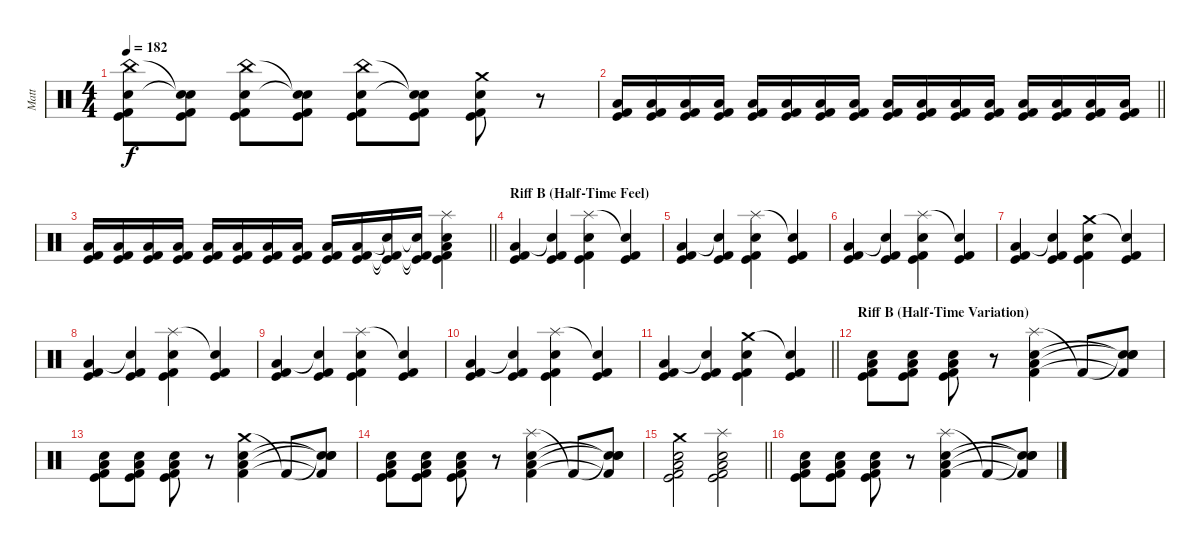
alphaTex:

\track ("Matt" "Matt") {instrument percussion}
\staff {score}
\articulation defaults
\ts (4 4)
\tempo 182
\clef neutral
\ks c
("China (hit)" "Electric Snare (hit)" "Kick (hit)" "Kick (hit) 2").8{dy f} ("Snare (hit)"{t} "Snare (hit)"{t} "Kick (hit)" "Kick (hit) 2").8 ("China (hit)" "Electric Snare (hit)" "Kick (hit)" "Kick (hit) 2").8 ("Snare (hit)"{t} "Snare (hit)"{t} "Kick (hit)" "Kick (hit) 2").8 ("China (hit)" "Electric Snare (hit)" "Kick (hit)" "Kick (hit) 2").8 ("Snare (hit)"{t} "Snare (hit)"{t} "Kick (hit)" "Kick (hit) 2").8 ("Crash medium (hit)" "Electric Snare (hit)" "Kick (hit)" "Kick (hit) 2").8 r.8 |
\barLineRight lightlight
("Low Floor Tom (hit)" "Kick (hit)" "Kick (hit) 2").16 ("Low Floor Tom (hit)" "Kick (hit)" "Kick (hit) 2").16 ("Low Floor Tom (hit)" "Kick (hit)" "Kick (hit) 2").16 ("Low Floor Tom (hit)" "Kick (hit)" "Kick (hit) 2").16 ("Low Floor Tom (hit)" "Kick (hit)" "Kick (hit) 2").16 ("Low Floor Tom (hit)" "Kick (hit)" "Kick (hit) 2").16 ("Low Floor Tom (hit)" "Kick (hit)" "Kick (hit) 2").16 ("Low Floor Tom (hit)" "Kick (hit)" "Kick (hit) 2").16 ("Low Floor Tom (hit)" "Kick (hit)" "Kick (hit) 2").16 ("Low Floor Tom (hit)" "Kick (hit)" "Kick (hit) 2").16 ("Low Floor Tom (hit)" "Kick (hit)" "Kick (hit) 2").16 ("Low Floor Tom (hit)" "Kick (hit)" "Kick (hit) 2").16 ("Low Floor Tom (hit)" "Kick (hit)" "Kick (hit) 2").16 ("Low Floor Tom (hit)" "Kick (hit)" "Kick (hit) 2").16 ("Low Floor Tom (hit)" "Kick (hit)" "Kick (hit) 2").16 ("Low Floor Tom (hit)" "Kick (hit)" "Kick (hit) 2").16 |
\barLineRight lightlight
("Low Floor Tom (hit)" "Kick (hit)" "Kick (hit) 2").16 ("Low Floor Tom (hit)" "Kick (hit)" "Kick (hit) 2").16 ("Low Floor Tom (hit)" "Kick (hit)" "Kick (hit) 2").16 ("Low Floor Tom (hit)" "Kick (hit)" "Kick (hit) 2").16 ("Low Floor Tom (hit)" "Kick (hit)" "Kick (hit) 2").16 ("Low Floor Tom (hit)" "Kick (hit)" "Kick (hit) 2").16 ("Low Floor Tom (hit)" "Kick (hit)" "Kick (hit) 2").16 ("Low Floor Tom (hit)" "Kick (hit)" "Kick (hit) 2").16 ("Low Floor Tom (hit)" "Kick (hit)" "Kick (hit) 2").16 ("Low Floor Tom (hit)" "Kick (hit)" "Kick (hit) 2").16 ("Snare (hit)"{t} "Kick (hit)"{t} "Kick (hit) 2"{t}).16 ("Snare (hit)"{t} "Kick (hit)"{t} "Kick (hit) 2"{t}).16 ("Splash (hit)" "Electric Snare (hit)" "Low Floor Tom (hit)" "Kick (hit)" "Kick (hit) 2").4 |
\section ("" "Riff B (Half-Time Feel)")
("Low Floor Tom (hit)" "Kick (hit)" "Kick (hit) 2").4 ("Snare (hit)"{t} "Kick (hit)" "Kick (hit) 2").4 ("Splash (hit)" "Electric Snare (hit)" "Kick (hit)" "Kick (hit) 2").4 ("Snare (hit)"{t} "Kick (hit)" "Kick (hit) 2").4 |
("Low Floor Tom (hit)" "Kick (hit)" "Kick (hit) 2").4 ("Snare (hit)"{t} "Kick (hit)" "Kick (hit) 2").4 ("Splash (hit)" "Electric Snare (hit)" "Kick (hit)" "Kick (hit) 2").4 ("Snare (hit)"{t} "Kick (hit)" "Kick (hit) 2").4 |
("Low Floor Tom (hit)" "Kick (hit)" "Kick (hit) 2").4 ("Snare (hit)"{t} "Kick (hit)" "Kick (hit) 2").4 ("Splash (hit)" "Electric Snare (hit)" "Kick (hit)" "Kick (hit) 2").4 ("Snare (hit)"{t} "Kick (hit)" "Kick (hit) 2").4 |
("Low Floor Tom (hit)" "Kick (hit)" "Kick (hit) 2").4 ("Snare (hit)"{t} "Kick (hit)" "Kick (hit) 2").4 ("Crash medium (hit)" "Electric Snare (hit)" "Kick (hit)" "Kick (hit) 2").4 ("Snare (hit)"{t} "Kick (hit)" "Kick (hit) 2").4 |
("Low Floor Tom (hit)" "Kick (hit)" "Kick (hit) 2").4 ("Snare (hit)"{t} "Kick (hit)" "Kick (hit) 2").4 ("Splash (hit)" "Electric Snare (hit)" "Kick (hit)" "Kick (hit) 2").4 ("Snare (hit)"{t} "Kick (hit)" "Kick (hit) 2").4 |
("Low Floor Tom (hit)" "Kick (hit)" "Kick (hit) 2").4 ("Snare (hit)"{t} "Kick (hit)" "Kick (hit) 2").4 ("Splash (hit)" "Electric Snare (hit)" "Kick (hit)" "Kick (hit) 2").4 ("Snare (hit)"{t} "Kick (hit)" "Kick (hit) 2").4 |
("Low Floor Tom (hit)" "Kick (hit)" "Kick (hit) 2").4 ("Snare (hit)"{t} "Kick (hit)" "Kick (hit) 2").4 ("Splash (hit)" "Electric Snare (hit)" "Kick (hit)" "Kick (hit) 2").4 ("Snare (hit)"{t} "Kick (hit)" "Kick (hit) 2").4 |
\barLineRight lightlight
("Low Floor Tom (hit)" "Kick (hit)" "Kick (hit) 2").4 ("Snare (hit)"{t} "Kick (hit)" "Kick (hit) 2").4 ("Crash medium (hit)" "Electric Snare (hit)" "Kick (hit)" "Kick (hit) 2").4 ("Snare (hit)"{t} "Kick (hit)" "Kick (hit) 2").4 |
\section ("" "Riff B (Half-Time Variation)")
("Electric Snare (hit)" "Low Floor Tom (hit)" "Kick (hit)" "Kick (hit) 2").8 ("Electric Snare (hit)" "Low Floor Tom (hit)" "Kick (hit)" "Kick (hit) 2").8 ("Electric Snare (hit)" "Low Floor Tom (hit)" "Kick (hit)" "Kick (hit) 2").8 r.8 ("Splash (hit)" "Electric Snare (hit)" "Low Floor Tom (hit)" "Kick (hit) 2").4 "Kick (hit) 2"{t}.8 ("Snare (hit)"{t} "Snare (hit)"{t} "Snare (hit)"{t} "Kick (hit) 2"{t}).8 |
("Electric Snare (hit)" "Low Floor Tom (hit)" "Kick (hit)" "Kick (hit) 2").8 ("Electric Snare (hit)" "Low Floor Tom (hit)" "Kick (hit)" "Kick (hit) 2").8 ("Electric Snare (hit)" "Low Floor Tom (hit)" "Kick (hit)" "Kick (hit) 2").8 r.8 ("Crash medium (hit)" "Electric Snare (hit)" "Low Floor Tom (hit)" "Kick (hit) 2").4 "Kick (hit) 2"{t}.8 ("Snare (hit)"{t} "Snare (hit)"{t} "Snare (hit)"{t} "Kick (hit) 2"{t}).8 |
("Electric Snare (hit)" "Low Floor Tom (hit)" "Kick (hit)" "Kick (hit) 2").8 ("Electric Snare (hit)" "Low Floor Tom (hit)" "Kick (hit)" "Kick (hit) 2").8 ("Electric Snare (hit)" "Low Floor Tom (hit)" "Kick (hit)" "Kick (hit) 2").8 r.8 ("Splash (hit)" "Electric Snare (hit)" "Low Floor Tom (hit)" "Kick (hit) 2").4 "Kick (hit) 2"{t}.8 ("Snare (hit)"{t} "Snare (hit)"{t} "Snare (hit)"{t} "Kick (hit) 2"{t}).8 |
\barLineRight lightlight
("Crash medium (hit)" "Electric Snare (hit)" "Low Floor Tom (hit)" "Kick (hit)" "Kick (hit) 2").2 ("Splash (hit)" "Electric Snare (hit)" "Low Floor Tom (hit)" "Kick (hit)" "Kick (hit) 2").2 |
("Electric Snare (hit)" "Low Floor Tom (hit)" "Kick (hit)" "Kick (hit) 2").8 ("Electric Snare (hit)" "Low Floor Tom (hit)" "Kick (hit)" "Kick (hit) 2").8 ("Electric Snare (hit)" "Low Floor Tom (hit)" "Kick (hit)" "Kick (hit) 2").8 r.8 ("Splash (hit)" "Electric Snare (hit)" "Low Floor Tom (hit)" "Kick (hit) 2").4 "Kick (hit) 2"{t}.8 ("Snare (hit)"{t} "Snare (hit)"{t} "Snare (hit)"{t} "Kick (hit) 2"{t}).8
